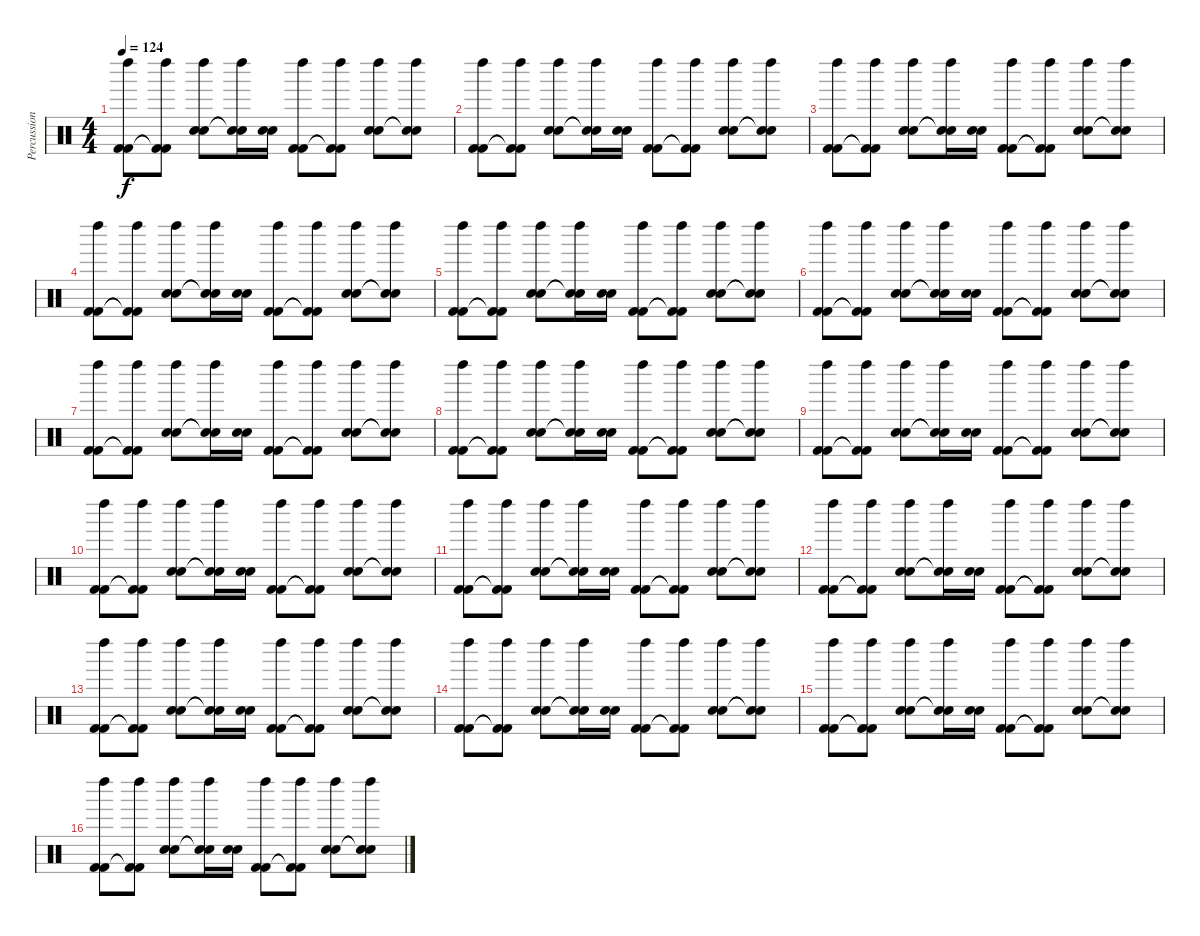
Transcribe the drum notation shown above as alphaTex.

\track ("Percussions" "Percussion") {instrument percussion}
\staff {score}
\articulation defaults
\ts (4 4)
\tempo 124
\clef neutral
\ks c
("Left Maraca (hit)" "Kick (hit) 2" "Kick (hit) 2").8{dy f} ("Left Maraca (hit)" "Kick (hit) 2"{t} "Kick (hit) 2"{t}).8 ("Left Maraca (hit)" "Snare (hit) 2" "Snare (hit) 2").8 ("Left Maraca (hit)" "Snare (hit) 2"{t} "Snare (hit) 2"{t}).16 ("Snare (hit) 2" "Snare (hit) 2").16 ("Left Maraca (hit)" "Kick (hit) 2" "Kick (hit) 2").8 ("Left Maraca (hit)" "Kick (hit) 2"{t} "Kick (hit) 2"{t}).8 ("Left Maraca (hit)" "Snare (hit) 2" "Snare (hit) 2").8 ("Left Maraca (hit)" "Snare (hit) 2"{t} "Snare (hit) 2"{t}).8 |
("Left Maraca (hit)" "Kick (hit) 2" "Kick (hit) 2").8 ("Left Maraca (hit)" "Kick (hit) 2"{t} "Kick (hit) 2"{t}).8 ("Left Maraca (hit)" "Snare (hit) 2" "Snare (hit) 2").8 ("Left Maraca (hit)" "Snare (hit) 2"{t} "Snare (hit) 2"{t}).16 ("Snare (hit) 2" "Snare (hit) 2").16 ("Left Maraca (hit)" "Kick (hit) 2" "Kick (hit) 2").8 ("Left Maraca (hit)" "Kick (hit) 2"{t} "Kick (hit) 2"{t}).8 ("Left Maraca (hit)" "Snare (hit) 2" "Snare (hit) 2").8 ("Left Maraca (hit)" "Snare (hit) 2"{t} "Snare (hit) 2"{t}).8 |
("Left Maraca (hit)" "Kick (hit) 2" "Kick (hit) 2").8 ("Left Maraca (hit)" "Kick (hit) 2"{t} "Kick (hit) 2"{t}).8 ("Left Maraca (hit)" "Snare (hit) 2" "Snare (hit) 2").8 ("Left Maraca (hit)" "Snare (hit) 2"{t} "Snare (hit) 2"{t}).16 ("Snare (hit) 2" "Snare (hit) 2").16 ("Left Maraca (hit)" "Kick (hit) 2" "Kick (hit) 2").8 ("Left Maraca (hit)" "Kick (hit) 2"{t} "Kick (hit) 2"{t}).8 ("Left Maraca (hit)" "Snare (hit) 2" "Snare (hit) 2").8 ("Left Maraca (hit)" "Snare (hit) 2"{t} "Snare (hit) 2"{t}).8 |
("Left Maraca (hit)" "Kick (hit) 2" "Kick (hit) 2").8 ("Left Maraca (hit)" "Kick (hit) 2"{t} "Kick (hit) 2"{t}).8 ("Left Maraca (hit)" "Snare (hit) 2" "Snare (hit) 2").8 ("Left Maraca (hit)" "Snare (hit) 2"{t} "Snare (hit) 2"{t}).16 ("Snare (hit) 2" "Snare (hit) 2").16 ("Left Maraca (hit)" "Kick (hit) 2" "Kick (hit) 2").8 ("Left Maraca (hit)" "Kick (hit) 2"{t} "Kick (hit) 2"{t}).8 ("Left Maraca (hit)" "Snare (hit) 2" "Snare (hit) 2").8 ("Left Maraca (hit)" "Snare (hit) 2"{t} "Snare (hit) 2"{t}).8 |
("Left Maraca (hit)" "Kick (hit) 2" "Kick (hit) 2").8 ("Left Maraca (hit)" "Kick (hit) 2"{t} "Kick (hit) 2"{t}).8 ("Left Maraca (hit)" "Snare (hit) 2" "Snare (hit) 2").8 ("Left Maraca (hit)" "Snare (hit) 2"{t} "Snare (hit) 2"{t}).16 ("Snare (hit) 2" "Snare (hit) 2").16 ("Left Maraca (hit)" "Kick (hit) 2" "Kick (hit) 2").8 ("Left Maraca (hit)" "Kick (hit) 2"{t} "Kick (hit) 2"{t}).8 ("Left Maraca (hit)" "Snare (hit) 2" "Snare (hit) 2").8 ("Left Maraca (hit)" "Snare (hit) 2"{t} "Snare (hit) 2"{t}).8 |
("Left Maraca (hit)" "Kick (hit) 2" "Kick (hit) 2").8 ("Left Maraca (hit)" "Kick (hit) 2"{t} "Kick (hit) 2"{t}).8 ("Left Maraca (hit)" "Snare (hit) 2" "Snare (hit) 2").8 ("Left Maraca (hit)" "Snare (hit) 2"{t} "Snare (hit) 2"{t}).16 ("Snare (hit) 2" "Snare (hit) 2").16 ("Left Maraca (hit)" "Kick (hit) 2" "Kick (hit) 2").8 ("Left Maraca (hit)" "Kick (hit) 2"{t} "Kick (hit) 2"{t}).8 ("Left Maraca (hit)" "Snare (hit) 2" "Snare (hit) 2").8 ("Left Maraca (hit)" "Snare (hit) 2"{t} "Snare (hit) 2"{t}).8 |
("Left Maraca (hit)" "Kick (hit) 2" "Kick (hit) 2").8 ("Left Maraca (hit)" "Kick (hit) 2"{t} "Kick (hit) 2"{t}).8 ("Left Maraca (hit)" "Snare (hit) 2" "Snare (hit) 2").8 ("Left Maraca (hit)" "Snare (hit) 2"{t} "Snare (hit) 2"{t}).16 ("Snare (hit) 2" "Snare (hit) 2").16 ("Left Maraca (hit)" "Kick (hit) 2" "Kick (hit) 2").8 ("Left Maraca (hit)" "Kick (hit) 2"{t} "Kick (hit) 2"{t}).8 ("Left Maraca (hit)" "Snare (hit) 2" "Snare (hit) 2").8 ("Left Maraca (hit)" "Snare (hit) 2"{t} "Snare (hit) 2"{t}).8 |
("Left Maraca (hit)" "Kick (hit) 2" "Kick (hit) 2").8 ("Left Maraca (hit)" "Kick (hit) 2"{t} "Kick (hit) 2"{t}).8 ("Left Maraca (hit)" "Snare (hit) 2" "Snare (hit) 2").8 ("Left Maraca (hit)" "Snare (hit) 2"{t} "Snare (hit) 2"{t}).16 ("Snare (hit) 2" "Snare (hit) 2").16 ("Left Maraca (hit)" "Kick (hit) 2" "Kick (hit) 2").8 ("Left Maraca (hit)" "Kick (hit) 2"{t} "Kick (hit) 2"{t}).8 ("Left Maraca (hit)" "Snare (hit) 2" "Snare (hit) 2").8 ("Left Maraca (hit)" "Snare (hit) 2"{t} "Snare (hit) 2"{t}).8 |
("Left Maraca (hit)" "Kick (hit) 2" "Kick (hit) 2").8 ("Left Maraca (hit)" "Kick (hit) 2"{t} "Kick (hit) 2"{t}).8 ("Left Maraca (hit)" "Snare (hit) 2" "Snare (hit) 2").8 ("Left Maraca (hit)" "Snare (hit) 2"{t} "Snare (hit) 2"{t}).16 ("Snare (hit) 2" "Snare (hit) 2").16 ("Left Maraca (hit)" "Kick (hit) 2" "Kick (hit) 2").8 ("Left Maraca (hit)" "Kick (hit) 2"{t} "Kick (hit) 2"{t}).8 ("Left Maraca (hit)" "Snare (hit) 2" "Snare (hit) 2").8 ("Left Maraca (hit)" "Snare (hit) 2"{t} "Snare (hit) 2"{t}).8 |
("Left Maraca (hit)" "Kick (hit) 2" "Kick (hit) 2").8 ("Left Maraca (hit)" "Kick (hit) 2"{t} "Kick (hit) 2"{t}).8 ("Left Maraca (hit)" "Snare (hit) 2" "Snare (hit) 2").8 ("Left Maraca (hit)" "Snare (hit) 2"{t} "Snare (hit) 2"{t}).16 ("Snare (hit) 2" "Snare (hit) 2").16 ("Left Maraca (hit)" "Kick (hit) 2" "Kick (hit) 2").8 ("Left Maraca (hit)" "Kick (hit) 2"{t} "Kick (hit) 2"{t}).8 ("Left Maraca (hit)" "Snare (hit) 2" "Snare (hit) 2").8 ("Left Maraca (hit)" "Snare (hit) 2"{t} "Snare (hit) 2"{t}).8 |
("Left Maraca (hit)" "Kick (hit) 2" "Kick (hit) 2").8 ("Left Maraca (hit)" "Kick (hit) 2"{t} "Kick (hit) 2"{t}).8 ("Left Maraca (hit)" "Snare (hit) 2" "Snare (hit) 2").8 ("Left Maraca (hit)" "Snare (hit) 2"{t} "Snare (hit) 2"{t}).16 ("Snare (hit) 2" "Snare (hit) 2").16 ("Left Maraca (hit)" "Kick (hit) 2" "Kick (hit) 2").8 ("Left Maraca (hit)" "Kick (hit) 2"{t} "Kick (hit) 2"{t}).8 ("Left Maraca (hit)" "Snare (hit) 2" "Snare (hit) 2").8 ("Left Maraca (hit)" "Snare (hit) 2"{t} "Snare (hit) 2"{t}).8 |
("Left Maraca (hit)" "Kick (hit) 2" "Kick (hit) 2").8 ("Left Maraca (hit)" "Kick (hit) 2"{t} "Kick (hit) 2"{t}).8 ("Left Maraca (hit)" "Snare (hit) 2" "Snare (hit) 2").8 ("Left Maraca (hit)" "Snare (hit) 2"{t} "Snare (hit) 2"{t}).16 ("Snare (hit) 2" "Snare (hit) 2").16 ("Left Maraca (hit)" "Kick (hit) 2" "Kick (hit) 2").8 ("Left Maraca (hit)" "Kick (hit) 2"{t} "Kick (hit) 2"{t}).8 ("Left Maraca (hit)" "Snare (hit) 2" "Snare (hit) 2").8 ("Left Maraca (hit)" "Snare (hit) 2"{t} "Snare (hit) 2"{t}).8 |
("Left Maraca (hit)" "Kick (hit) 2" "Kick (hit) 2").8 ("Left Maraca (hit)" "Kick (hit) 2"{t} "Kick (hit) 2"{t}).8 ("Left Maraca (hit)" "Snare (hit) 2" "Snare (hit) 2").8 ("Left Maraca (hit)" "Snare (hit) 2"{t} "Snare (hit) 2"{t}).16 ("Snare (hit) 2" "Snare (hit) 2").16 ("Left Maraca (hit)" "Kick (hit) 2" "Kick (hit) 2").8 ("Left Maraca (hit)" "Kick (hit) 2"{t} "Kick (hit) 2"{t}).8 ("Left Maraca (hit)" "Snare (hit) 2" "Snare (hit) 2").8 ("Left Maraca (hit)" "Snare (hit) 2"{t} "Snare (hit) 2"{t}).8 |
("Left Maraca (hit)" "Kick (hit) 2" "Kick (hit) 2").8 ("Left Maraca (hit)" "Kick (hit) 2"{t} "Kick (hit) 2"{t}).8 ("Left Maraca (hit)" "Snare (hit) 2" "Snare (hit) 2").8 ("Left Maraca (hit)" "Snare (hit) 2"{t} "Snare (hit) 2"{t}).16 ("Snare (hit) 2" "Snare (hit) 2").16 ("Left Maraca (hit)" "Kick (hit) 2" "Kick (hit) 2").8 ("Left Maraca (hit)" "Kick (hit) 2"{t} "Kick (hit) 2"{t}).8 ("Left Maraca (hit)" "Snare (hit) 2" "Snare (hit) 2").8 ("Left Maraca (hit)" "Snare (hit) 2"{t} "Snare (hit) 2"{t}).8 |
("Left Maraca (hit)" "Kick (hit) 2" "Kick (hit) 2").8 ("Left Maraca (hit)" "Kick (hit) 2"{t} "Kick (hit) 2"{t}).8 ("Left Maraca (hit)" "Snare (hit) 2" "Snare (hit) 2").8 ("Left Maraca (hit)" "Snare (hit) 2"{t} "Snare (hit) 2"{t}).16 ("Snare (hit) 2" "Snare (hit) 2").16 ("Left Maraca (hit)" "Kick (hit) 2" "Kick (hit) 2").8 ("Left Maraca (hit)" "Kick (hit) 2"{t} "Kick (hit) 2"{t}).8 ("Left Maraca (hit)" "Snare (hit) 2" "Snare (hit) 2").8 ("Left Maraca (hit)" "Snare (hit) 2"{t} "Snare (hit) 2"{t}).8 |
("Left Maraca (hit)" "Kick (hit) 2" "Kick (hit) 2").8 ("Left Maraca (hit)" "Kick (hit) 2"{t} "Kick (hit) 2"{t}).8 ("Left Maraca (hit)" "Snare (hit) 2" "Snare (hit) 2").8 ("Left Maraca (hit)" "Snare (hit) 2"{t} "Snare (hit) 2"{t}).16 ("Snare (hit) 2" "Snare (hit) 2").16 ("Left Maraca (hit)" "Kick (hit) 2" "Kick (hit) 2").8 ("Left Maraca (hit)" "Kick (hit) 2"{t} "Kick (hit) 2"{t}).8 ("Left Maraca (hit)" "Snare (hit) 2" "Snare (hit) 2").8 ("Left Maraca (hit)" "Snare (hit) 2"{t} "Snare (hit) 2"{t}).8
